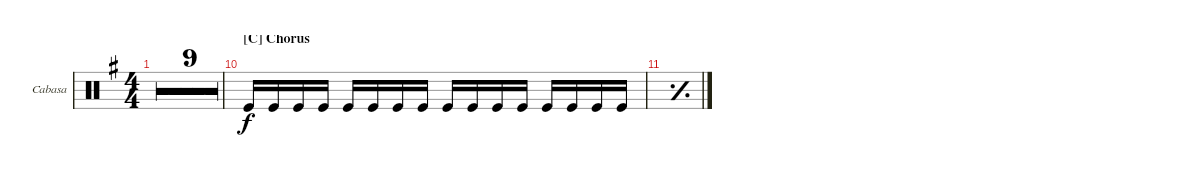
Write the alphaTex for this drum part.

\defaultSystemsLayout 4
\bracketExtendMode groupsimilarinstruments
\firstSystemTrackNameOrientation horizontal
\otherSystemsTrackNameOrientation horizontal
\track ("Cabasa" "Cabasa") {multiBarRest instrument percussion}
\staff {score}
\articulation defaults
\ts (4 4)
\tempo 98
\clef neutral
\ks g
r.1{dy f} |
r.1 |
r.1 |
r.1 |
r.1 |
r.1 |
r.1 |
r.1 |
r.1 |
\section ("C" "Chorus")
"Kick (hit)".16 "Kick (hit)".16 "Kick (hit)".16 "Kick (hit)".16 "Kick (hit)".16 "Kick (hit)".16 "Kick (hit)".16 "Kick (hit)".16 "Kick (hit)".16 "Kick (hit)".16 "Kick (hit)".16 "Kick (hit)".16 "Kick (hit)".16 "Kick (hit)".16 "Kick (hit)".16 "Kick (hit)".16 |
\simile simple
